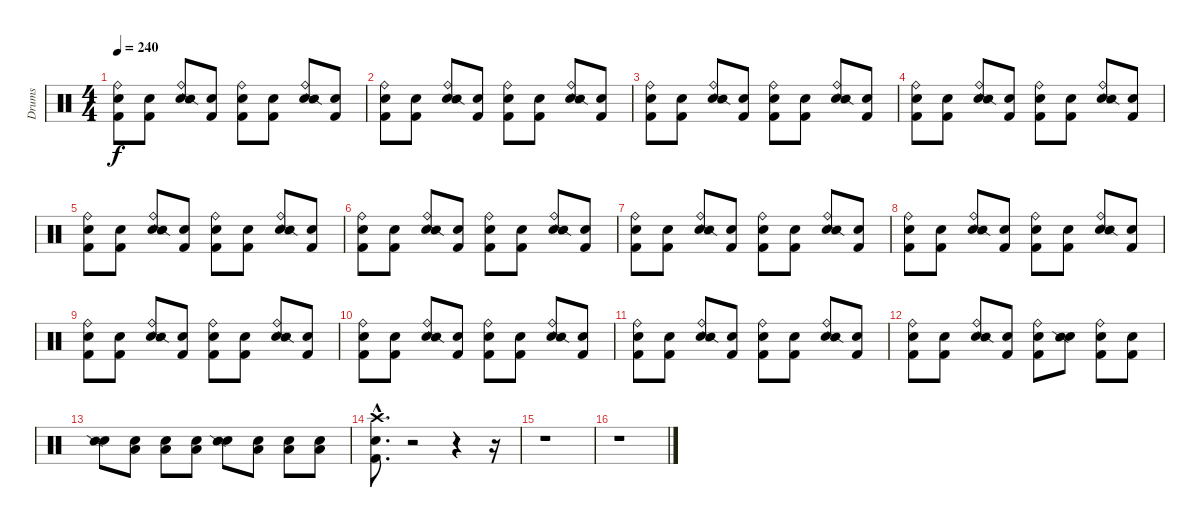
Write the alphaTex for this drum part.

\track ("Drums" "Drums") {instrument percussion}
\staff {score}
\articulation defaults
\ts (4 4)
\tempo 240
\clef neutral
\ks c
("Snare (hit)" "Kick (hit) 2" "Ride (bell)").8{dy f} ("Snare (hit)" "Kick (hit) 2").8 ("Snare (hit)" "Ride (bell)" "Snare (side stick) 2").8 ("Snare (hit)" "Kick (hit) 2").8 ("Snare (hit)" "Kick (hit) 2" "Ride (bell)").8 ("Snare (hit)" "Kick (hit) 2").8 ("Snare (hit)" "Ride (bell)" "Snare (side stick) 2").8 ("Snare (hit)" "Kick (hit) 2").8 |
("Snare (hit)" "Kick (hit) 2" "Ride (bell)").8 ("Snare (hit)" "Kick (hit) 2").8 ("Snare (hit)" "Ride (bell)" "Snare (side stick) 2").8 ("Snare (hit)" "Kick (hit) 2").8 ("Snare (hit)" "Kick (hit) 2" "Ride (bell)").8 ("Snare (hit)" "Kick (hit) 2").8 ("Snare (hit)" "Ride (bell)" "Snare (side stick) 2").8 ("Snare (hit)" "Kick (hit) 2").8 |
("Snare (hit)" "Kick (hit) 2" "Ride (bell)").8 ("Snare (hit)" "Kick (hit) 2").8 ("Snare (hit)" "Ride (bell)" "Snare (side stick) 2").8 ("Snare (hit)" "Kick (hit) 2").8 ("Snare (hit)" "Kick (hit) 2" "Ride (bell)").8 ("Snare (hit)" "Kick (hit) 2").8 ("Snare (hit)" "Ride (bell)" "Snare (side stick) 2").8 ("Snare (hit)" "Kick (hit) 2").8 |
("Snare (hit)" "Kick (hit) 2" "Ride (bell)").8 ("Snare (hit)" "Kick (hit) 2").8 ("Snare (hit)" "Ride (bell)" "Snare (side stick) 2").8 ("Snare (hit)" "Kick (hit) 2").8 ("Snare (hit)" "Kick (hit) 2" "Ride (bell)").8 ("Snare (hit)" "Kick (hit) 2").8 ("Snare (hit)" "Ride (bell)" "Snare (side stick) 2").8 ("Snare (hit)" "Kick (hit) 2").8 |
("Snare (hit)" "Kick (hit) 2" "Ride (bell)").8 ("Snare (hit)" "Kick (hit) 2").8 ("Snare (hit)" "Ride (bell)" "Snare (side stick) 2").8 ("Snare (hit)" "Kick (hit) 2").8 ("Snare (hit)" "Kick (hit) 2" "Ride (bell)").8 ("Snare (hit)" "Kick (hit) 2").8 ("Snare (hit)" "Ride (bell)" "Snare (side stick) 2").8 ("Snare (hit)" "Kick (hit) 2").8 |
("Snare (hit)" "Kick (hit) 2" "Ride (bell)").8 ("Snare (hit)" "Kick (hit) 2").8 ("Snare (hit)" "Ride (bell)" "Snare (side stick) 2").8 ("Snare (hit)" "Kick (hit) 2").8 ("Snare (hit)" "Kick (hit) 2" "Ride (bell)").8 ("Snare (hit)" "Kick (hit) 2").8 ("Snare (hit)" "Ride (bell)" "Snare (side stick) 2").8 ("Snare (hit)" "Kick (hit) 2").8 |
("Snare (hit)" "Kick (hit) 2" "Ride (bell)").8 ("Snare (hit)" "Kick (hit) 2").8 ("Snare (hit)" "Ride (bell)" "Snare (side stick) 2").8 ("Snare (hit)" "Kick (hit) 2").8 ("Snare (hit)" "Kick (hit) 2" "Ride (bell)").8 ("Snare (hit)" "Kick (hit) 2").8 ("Snare (hit)" "Ride (bell)" "Snare (side stick) 2").8 ("Snare (hit)" "Kick (hit) 2").8 |
("Snare (hit)" "Kick (hit) 2" "Ride (bell)").8 ("Snare (hit)" "Kick (hit) 2").8 ("Snare (hit)" "Ride (bell)" "Snare (side stick) 2").8 ("Snare (hit)" "Kick (hit) 2").8 ("Snare (hit)" "Kick (hit) 2" "Ride (bell)").8 ("Snare (hit)" "Kick (hit) 2").8 ("Snare (hit)" "Ride (bell)" "Snare (side stick) 2").8 ("Snare (hit)" "Kick (hit) 2").8 |
("Snare (hit)" "Kick (hit) 2" "Ride (bell)").8 ("Snare (hit)" "Kick (hit) 2").8 ("Snare (hit)" "Ride (bell)" "Snare (side stick) 2").8 ("Snare (hit)" "Kick (hit) 2").8 ("Snare (hit)" "Kick (hit) 2" "Ride (bell)").8 ("Snare (hit)" "Kick (hit) 2").8 ("Snare (hit)" "Ride (bell)" "Snare (side stick) 2").8 ("Snare (hit)" "Kick (hit) 2").8 |
("Snare (hit)" "Kick (hit) 2" "Ride (bell)").8 ("Snare (hit)" "Kick (hit) 2").8 ("Snare (hit)" "Ride (bell)" "Snare (side stick) 2").8 ("Snare (hit)" "Kick (hit) 2").8 ("Snare (hit)" "Kick (hit) 2" "Ride (bell)").8 ("Snare (hit)" "Kick (hit) 2").8 ("Snare (hit)" "Ride (bell)" "Snare (side stick) 2").8 ("Snare (hit)" "Kick (hit) 2").8 |
("Snare (hit)" "Kick (hit) 2" "Ride (bell)").8 ("Snare (hit)" "Kick (hit) 2").8 ("Snare (hit)" "Ride (bell)" "Snare (side stick) 2").8 ("Snare (hit)" "Kick (hit) 2").8 ("Snare (hit)" "Kick (hit) 2" "Ride (bell)").8 ("Snare (hit)" "Kick (hit) 2").8 ("Snare (hit)" "Ride (bell)" "Snare (side stick) 2").8 ("Snare (hit)" "Kick (hit) 2").8 |
("Snare (hit)" "Kick (hit) 2" "Ride (bell)").8 ("Snare (hit)" "Kick (hit) 2").8 ("Snare (hit)" "Ride (bell)" "Snare (side stick) 2").8 ("Snare (hit)" "Kick (hit) 2").8 ("Snare (hit)" "Kick (hit) 2" "Ride (bell)").8 ("Snare (hit)" "Snare (side stick) 2").8 ("Snare (hit)" "Kick (hit) 2" "Ride (bell)").8 ("Snare (hit)" "Kick (hit) 2").8 |
("Snare (hit)" "Snare (side stick) 2").8 ("Snare (hit)" "Low Tom (hit)").8 ("Snare (hit)" "Low Tom (hit)").8 ("Snare (hit)" "Low Tom (hit)").8 ("Snare (hit)" "Snare (side stick) 2").8 ("Snare (hit)" "Low Tom (hit)").8 ("Snare (hit)" "Low Tom (hit)").8 ("Snare (hit)" "Low Tom (hit)").8 |
("Snare (hit)"{hac} "Kick (hit) 2"{hac} "Crash high (hit)"{hac}).8{d} r.2 r.4 r.16 |
r.1 |
r.1
